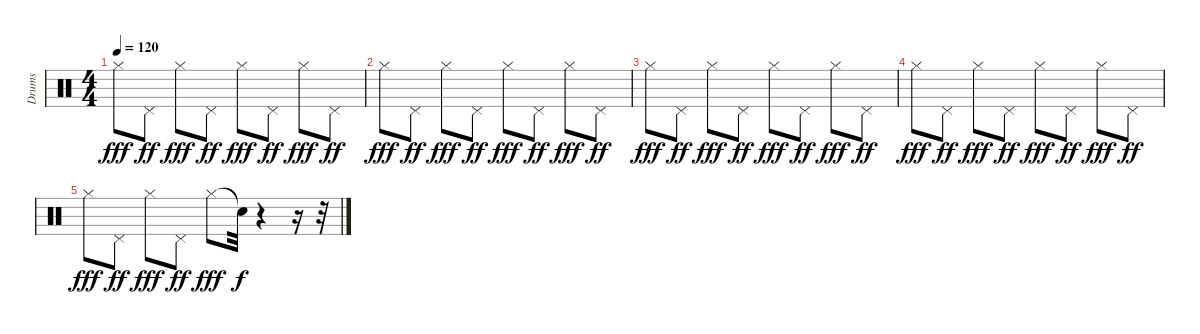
\track ("Drums" "Drums") {instrument percussion}
\staff {score}
\articulation defaults
\ts (4 4)
\tempo 120
\clef neutral
\ks c "Hi-Hat (closed)".8{dy fff} "Pedal Hi-Hat (hit)".8{dy ff} "Hi-Hat (closed)".8{dy fff} "Pedal Hi-Hat (hit)".8{dy ff} "Hi-Hat (closed)".8{dy fff} "Pedal Hi-Hat (hit)".8{dy ff} "Hi-Hat (closed)".8{dy fff} "Pedal Hi-Hat (hit)".8{dy ff}
|
"Hi-Hat (closed)".8{dy fff} "Pedal Hi-Hat (hit)".8{dy ff} "Hi-Hat (closed)".8{dy fff} "Pedal Hi-Hat (hit)".8{dy ff} "Hi-Hat (closed)".8{dy fff} "Pedal Hi-Hat (hit)".8{dy ff} "Hi-Hat (closed)".8{dy fff} "Pedal Hi-Hat (hit)".8{dy ff} |
"Hi-Hat (closed)".8{dy fff} "Pedal Hi-Hat (hit)".8{dy ff} "Hi-Hat (closed)".8{dy fff} "Pedal Hi-Hat (hit)".8{dy ff} "Hi-Hat (closed)".8{dy fff} "Pedal Hi-Hat (hit)".8{dy ff} "Hi-Hat (closed)".8{dy fff} "Pedal Hi-Hat (hit)".8{dy ff} |
"Hi-Hat (closed)".8{dy fff} "Pedal Hi-Hat (hit)".8{dy ff} "Hi-Hat (closed)".8{dy fff} "Pedal Hi-Hat (hit)".8{dy ff} "Hi-Hat (closed)".8{dy fff} "Pedal Hi-Hat (hit)".8{dy ff} "Hi-Hat (closed)".8{dy fff} "Pedal Hi-Hat (hit)".8{dy ff} |
"Hi-Hat (closed)".8{dy fff} "Pedal Hi-Hat (hit)".8{dy ff} "Hi-Hat (closed)".8{dy fff} "Pedal Hi-Hat (hit)".8{dy ff} "Hi-Hat (closed)".8{dy fff} "Snare (hit)"{t}.32{dy f} r.4 r.16 r.32
